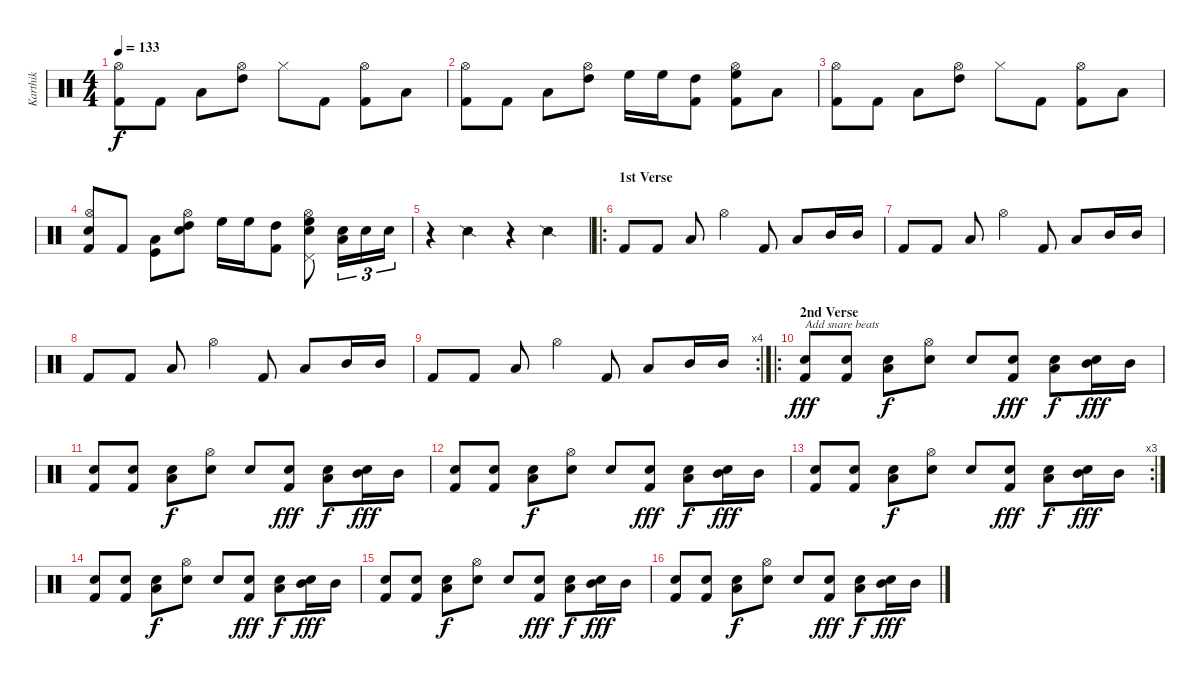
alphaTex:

\track ("Karthik" "Karthik") {instrument percussion}
\staff {score}
\articulation defaults
\ts (4 4)
\tempo 133
\clef neutral
\ks c
("Kick (hit) 2" "Hi-Hat (open)").8{dy f} "Kick (hit) 2".8 "Low Tom (hit)".8 ("High Tom (hit)" "Hi-Hat (open)").8 "Hi-Hat (closed)".8 "Kick (hit) 2".8 ("Kick (hit) 2" "Hi-Hat (open)").8 "Low Tom (hit)".8 |
("Kick (hit) 2" "Hi-Hat (open)").8 "Kick (hit) 2".8 "Low Tom (hit)".8 ("High Tom (hit)" "Hi-Hat (open)").8 "High Floor Tom (hit)".16 "High Floor Tom (hit)".16 ("Kick (hit) 2" "High Tom (hit)").8 ("Kick (hit) 2" "Hi-Hat (open)" "High Floor Tom (hit)").8 "Low Tom (hit)".8 |
("Kick (hit) 2" "Hi-Hat (open)").8 "Kick (hit) 2".8 "Low Tom (hit)".8 ("High Tom (hit)" "Hi-Hat (open)").8 "Hi-Hat (closed)".8 "Kick (hit) 2".8 ("Kick (hit) 2" "Hi-Hat (open)").8 "Low Tom (hit)".8 |
("Snare (hit) 2" "Kick (hit) 2" "Hi-Hat (open)").8 "Kick (hit) 2".8 ("Kick (hit)" "Low Tom (hit)").8 ("Snare (hit) 2" "High Tom (hit)" "Hi-Hat (open)").8 "High Floor Tom (hit)".16 "High Floor Tom (hit)".16 ("Kick (hit) 2" "High Tom (hit)").8 ("Snare (hit) 2" "Pedal Hi-Hat (hit)" "Hi-Hat (open)" "High Floor Tom (hit)").8 ("Snare (hit) 2" "Low Tom (hit)").16{tu (3 2)} "Snare (hit) 2".16{tu (3 2)} "Snare (hit) 2".16{tu (3 2)} |
r.4 "Snare (side stick) 2".4 r.4 "Snare (side stick) 2".4 |
\ro
\section ("" "1st Verse")
"Kick (hit) 2".8 "Kick (hit) 2".8 "Low Tom (hit)".8 "Hi-Hat (open)".4 "Kick (hit) 2".8 "Low Tom (hit)".8 "Mid Tom (hit)".16 "Mid Tom (hit)".16 |
"Kick (hit) 2".8 "Kick (hit) 2".8 "Low Tom (hit)".8 "Hi-Hat (open)".4 "Kick (hit) 2".8 "Low Tom (hit)".8 "Mid Tom (hit)".16 "Mid Tom (hit)".16 |
"Kick (hit) 2".8 "Kick (hit) 2".8 "Low Tom (hit)".8 "Hi-Hat (open)".4 "Kick (hit) 2".8 "Low Tom (hit)".8 "Mid Tom (hit)".16 "Mid Tom (hit)".16 |
\rc 4 "Kick (hit) 2".8 "Kick (hit) 2".8 "Low Tom (hit)".8 "Hi-Hat (open)".4 "Kick (hit) 2".8 "Low Tom (hit)".8 "Mid Tom (hit)".16 "Mid Tom (hit)".16
|
\ro
\section ("" "2nd Verse")
("Kick (hit) 2" "Snare (hit) 2").8{txt "Add snare beats" dy fff volume 16} ("Kick (hit) 2" "Electric Snare (hit)").8 ("Low Tom (hit)" "Electric Snare (hit)").8{dy f} ("Hi-Hat (open)" "Snare (hit) 2").8 "Electric Snare (hit)".8 ("Kick (hit) 2" "Electric Snare (hit)").8{dy fff} ("Low Tom (hit)" "Snare (hit) 2").8{dy f} ("Mid Tom (hit)" "Snare (hit) 2").16{dy fff} "Mid Tom (hit)".16 |
("Kick (hit) 2" "Snare (hit) 2").8 ("Kick (hit) 2" "Electric Snare (hit)").8 ("Low Tom (hit)" "Electric Snare (hit)").8{dy f} ("Hi-Hat (open)" "Snare (hit) 2").8 "Electric Snare (hit)".8 ("Kick (hit) 2" "Electric Snare (hit)").8{dy fff} ("Low Tom (hit)" "Snare (hit) 2").8{dy f} ("Mid Tom (hit)" "Snare (hit) 2").16{dy fff} "Mid Tom (hit)".16 |
("Kick (hit) 2" "Snare (hit) 2").8 ("Kick (hit) 2" "Electric Snare (hit)").8 ("Low Tom (hit)" "Electric Snare (hit)").8{dy f} ("Hi-Hat (open)" "Snare (hit) 2").8 "Electric Snare (hit)".8 ("Kick (hit) 2" "Electric Snare (hit)").8{dy fff} ("Low Tom (hit)" "Snare (hit) 2").8{dy f} ("Mid Tom (hit)" "Snare (hit) 2").16{dy fff} "Mid Tom (hit)".16 |
\rc 3
("Kick (hit) 2" "Snare (hit) 2").8 ("Kick (hit) 2" "Electric Snare (hit)").8 ("Low Tom (hit)" "Electric Snare (hit)").8{dy f} ("Hi-Hat (open)" "Snare (hit) 2").8 "Electric Snare (hit)".8 ("Kick (hit) 2" "Electric Snare (hit)").8{dy fff} ("Low Tom (hit)" "Snare (hit) 2").8{dy f} ("Mid Tom (hit)" "Snare (hit) 2").16{dy fff} "Mid Tom (hit)".16 |
("Kick (hit) 2" "Snare (hit) 2").8 ("Kick (hit) 2" "Electric Snare (hit)").8 ("Low Tom (hit)" "Electric Snare (hit)").8{dy f} ("Hi-Hat (open)" "Snare (hit) 2").8 "Electric Snare (hit)".8 ("Kick (hit) 2" "Electric Snare (hit)").8{dy fff} ("Low Tom (hit)" "Snare (hit) 2").8{dy f} ("Mid Tom (hit)" "Snare (hit) 2").16{dy fff} "Mid Tom (hit)".16 |
("Kick (hit) 2" "Snare (hit) 2").8 ("Kick (hit) 2" "Electric Snare (hit)").8 ("Low Tom (hit)" "Electric Snare (hit)").8{dy f} ("Hi-Hat (open)" "Snare (hit) 2").8 "Electric Snare (hit)".8 ("Kick (hit) 2" "Electric Snare (hit)").8{dy fff} ("Low Tom (hit)" "Snare (hit) 2").8{dy f} ("Mid Tom (hit)" "Snare (hit) 2").16{dy fff} "Mid Tom (hit)".16 |
("Kick (hit) 2" "Snare (hit) 2").8 ("Kick (hit) 2" "Electric Snare (hit)").8 ("Low Tom (hit)" "Electric Snare (hit)").8{dy f} ("Hi-Hat (open)" "Snare (hit) 2").8 "Electric Snare (hit)".8 ("Kick (hit) 2" "Electric Snare (hit)").8{dy fff} ("Low Tom (hit)" "Snare (hit) 2").8{dy f} ("Mid Tom (hit)" "Snare (hit) 2").16{dy fff} "Mid Tom (hit)".16
